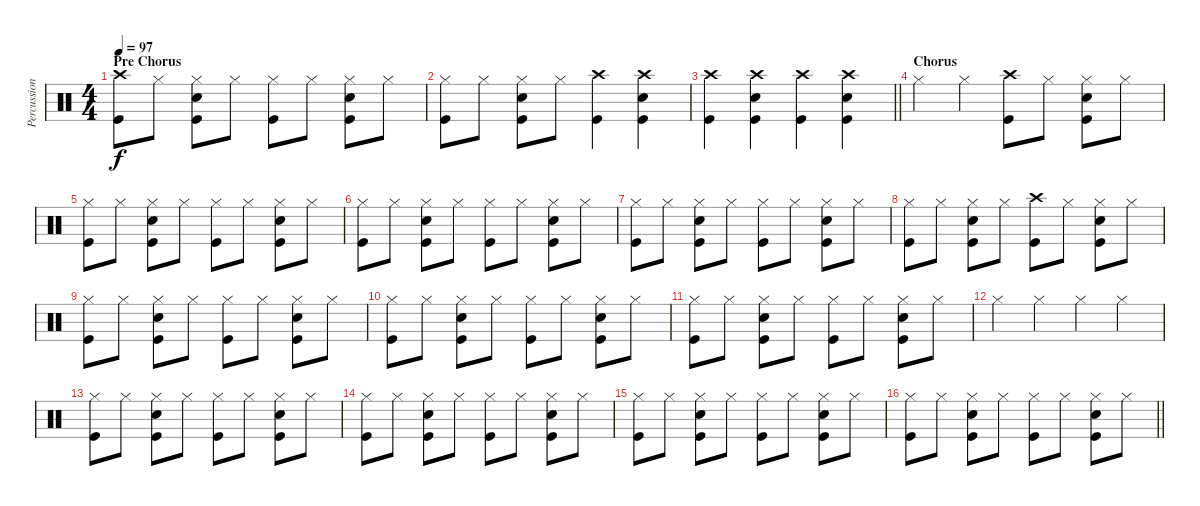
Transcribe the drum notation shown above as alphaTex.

\track ("Percussion" "Percussion") {instrument percussion}
\staff {score}
\articulation defaults
\ts (4 4)
\section ("" "Pre Chorus")
\tempo 97
\clef neutral
\ks c
("Crash high (hit)" "Kick (hit)").8{dy f} "Hi-Hat (closed)".8 ("Hi-Hat (closed)" "Kick (hit)" "Snare (hit) 2").8 "Hi-Hat (closed)".8 ("Hi-Hat (closed)" "Kick (hit)").8 "Hi-Hat (closed)".8 ("Hi-Hat (closed)" "Kick (hit)" "Snare (hit) 2").8 "Hi-Hat (closed)".8 |
("Hi-Hat (closed)" "Kick (hit)").8 "Hi-Hat (closed)".8 ("Hi-Hat (closed)" "Kick (hit)" "Snare (hit) 2").8 "Hi-Hat (closed)".8 ("Crash high (hit)" "Kick (hit)").4 ("Crash high (hit)" "Kick (hit)" "Snare (hit) 2").4 |
\barLineRight lightlight
("Crash high (hit)" "Kick (hit)").4 ("Crash high (hit)" "Kick (hit)" "Snare (hit) 2").4 ("Crash high (hit)" "Kick (hit)").4 ("Crash high (hit)" "Kick (hit)" "Snare (hit) 2").4 |
\section ("" "Chorus")
"Hi-Hat (closed)".4 "Hi-Hat (closed)".4 ("Crash high (hit)" "Kick (hit)").8 "Hi-Hat (closed)".8 ("Hi-Hat (closed)" "Kick (hit)" "Snare (hit) 2").8 "Hi-Hat (closed)".8 |
("Hi-Hat (closed)" "Kick (hit)").8 "Hi-Hat (closed)".8 ("Hi-Hat (closed)" "Kick (hit)" "Snare (hit) 2").8 "Hi-Hat (closed)".8 ("Hi-Hat (closed)" "Kick (hit)").8 "Hi-Hat (closed)".8 ("Hi-Hat (closed)" "Kick (hit)" "Snare (hit) 2").8 "Hi-Hat (closed)".8 |
("Hi-Hat (closed)" "Kick (hit)").8 "Hi-Hat (closed)".8 ("Hi-Hat (closed)" "Kick (hit)" "Snare (hit) 2").8 "Hi-Hat (closed)".8 ("Hi-Hat (closed)" "Kick (hit)").8 "Hi-Hat (closed)".8 ("Hi-Hat (closed)" "Kick (hit)" "Snare (hit) 2").8 "Hi-Hat (closed)".8 |
("Hi-Hat (closed)" "Kick (hit)").8 "Hi-Hat (closed)".8 ("Hi-Hat (closed)" "Kick (hit)" "Snare (hit) 2").8 "Hi-Hat (closed)".8 ("Hi-Hat (closed)" "Kick (hit)").8 "Hi-Hat (closed)".8 ("Hi-Hat (closed)" "Kick (hit)" "Snare (hit) 2").8 "Hi-Hat (closed)".8 |
("Hi-Hat (closed)" "Kick (hit)").8 "Hi-Hat (closed)".8 ("Hi-Hat (closed)" "Kick (hit)" "Snare (hit) 2").8 "Hi-Hat (closed)".8 ("Crash high (hit)" "Kick (hit)").8 "Hi-Hat (closed)".8 ("Hi-Hat (closed)" "Kick (hit)" "Snare (hit) 2").8 "Hi-Hat (closed)".8 |
("Hi-Hat (closed)" "Kick (hit)").8 "Hi-Hat (closed)".8 ("Hi-Hat (closed)" "Kick (hit)" "Snare (hit) 2").8 "Hi-Hat (closed)".8 ("Hi-Hat (closed)" "Kick (hit)").8 "Hi-Hat (closed)".8 ("Hi-Hat (closed)" "Kick (hit)" "Snare (hit) 2").8 "Hi-Hat (closed)".8 |
("Hi-Hat (closed)" "Kick (hit)").8 "Hi-Hat (closed)".8 ("Hi-Hat (closed)" "Kick (hit)" "Snare (hit) 2").8 "Hi-Hat (closed)".8 ("Hi-Hat (closed)" "Kick (hit)").8 "Hi-Hat (closed)".8 ("Hi-Hat (closed)" "Kick (hit)" "Snare (hit) 2").8 "Hi-Hat (closed)".8 |
("Hi-Hat (closed)" "Kick (hit)").8 "Hi-Hat (closed)".8 ("Hi-Hat (closed)" "Kick (hit)" "Snare (hit) 2").8 "Hi-Hat (closed)".8 ("Hi-Hat (closed)" "Kick (hit)").8 "Hi-Hat (closed)".8 ("Hi-Hat (closed)" "Kick (hit)" "Snare (hit) 2").8 "Hi-Hat (closed)".8 |
"Hi-Hat (closed)".4 "Hi-Hat (closed)".4 "Hi-Hat (closed)".4 "Hi-Hat (closed)".4 |
("Hi-Hat (closed)" "Kick (hit)").8 "Hi-Hat (closed)".8 ("Hi-Hat (closed)" "Kick (hit)" "Snare (hit) 2").8 "Hi-Hat (closed)".8 ("Hi-Hat (closed)" "Kick (hit)").8 "Hi-Hat (closed)".8 ("Hi-Hat (closed)" "Kick (hit)" "Snare (hit) 2").8 "Hi-Hat (closed)".8 |
("Hi-Hat (closed)" "Kick (hit)").8 "Hi-Hat (closed)".8 ("Hi-Hat (closed)" "Kick (hit)" "Snare (hit) 2").8 "Hi-Hat (closed)".8 ("Hi-Hat (closed)" "Kick (hit)").8 "Hi-Hat (closed)".8 ("Hi-Hat (closed)" "Kick (hit)" "Snare (hit) 2").8 "Hi-Hat (closed)".8 |
("Hi-Hat (closed)" "Kick (hit)").8 "Hi-Hat (closed)".8 ("Hi-Hat (closed)" "Kick (hit)" "Snare (hit) 2").8 "Hi-Hat (closed)".8 ("Hi-Hat (closed)" "Kick (hit)").8 "Hi-Hat (closed)".8 ("Hi-Hat (closed)" "Kick (hit)" "Snare (hit) 2").8 "Hi-Hat (closed)".8 |
\barLineRight lightlight
("Hi-Hat (closed)" "Kick (hit)").8 "Hi-Hat (closed)".8 ("Hi-Hat (closed)" "Kick (hit)" "Snare (hit) 2").8 "Hi-Hat (closed)".8 ("Hi-Hat (closed)" "Kick (hit)").8 "Hi-Hat (closed)".8 ("Hi-Hat (closed)" "Kick (hit)" "Snare (hit) 2").8 "Hi-Hat (closed)".8
